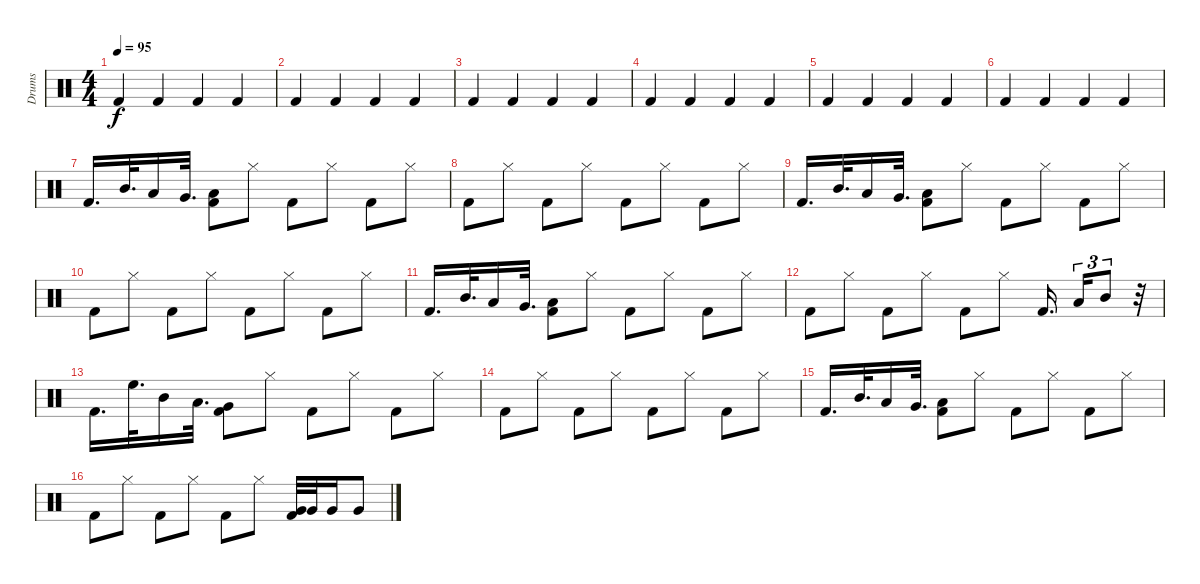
\track ("Drums" "Drums") {instrument percussion}
\staff {score}
\articulation defaults
\ts (4 4)
\tempo 95
\clef neutral
\ks c "Kick (hit) 2".4{dy f} "Kick (hit) 2".4 "Kick (hit) 2".4 "Kick (hit) 2".4
|
"Kick (hit) 2".4 "Kick (hit) 2".4 "Kick (hit) 2".4 "Kick (hit) 2".4 |
"Kick (hit) 2".4 "Kick (hit) 2".4 "Kick (hit) 2".4 "Kick (hit) 2".4 |
"Kick (hit) 2".4 "Kick (hit) 2".4 "Kick (hit) 2".4 "Kick (hit) 2".4 |
"Kick (hit) 2".4 "Kick (hit) 2".4 "Kick (hit) 2".4 "Kick (hit) 2".4 |
"Kick (hit) 2".4 "Kick (hit) 2".4 "Kick (hit) 2".4 "Kick (hit) 2".4 |
"Kick (hit) 2".16{d} "Mid Tom (hit)".32{d} "Low Tom (hit)".16 "Very Low Tom (hit)".32{d} ("Low Floor Tom (hit)" "Kick (hit) 2").8 "Hi-Hat (closed)".8 "Kick (hit) 2".8 "Hi-Hat (closed)".8 "Kick (hit) 2".8 "Hi-Hat (closed)".8 |
"Kick (hit) 2".8 "Hi-Hat (closed)".8 "Kick (hit) 2".8 "Hi-Hat (closed)".8 "Kick (hit) 2".8 "Hi-Hat (closed)".8 "Kick (hit) 2".8 "Hi-Hat (closed)".8 |
"Kick (hit) 2".16{d} "Mid Tom (hit)".32{d} "Low Tom (hit)".16 "Very Low Tom (hit)".32{d} ("Low Floor Tom (hit)" "Kick (hit) 2").8 "Hi-Hat (closed)".8 "Kick (hit) 2".8 "Hi-Hat (closed)".8 "Kick (hit) 2".8 "Hi-Hat (closed)".8 |
"Kick (hit) 2".8 "Hi-Hat (closed)".8 "Kick (hit) 2".8 "Hi-Hat (closed)".8 "Kick (hit) 2".8 "Hi-Hat (closed)".8 "Kick (hit) 2".8 "Hi-Hat (closed)".8 |
"Kick (hit) 2".16{d} "Mid Tom (hit)".32{d} "Low Tom (hit)".16 "Very Low Tom (hit)".32{d} ("Low Floor Tom (hit)" "Kick (hit) 2").8 "Hi-Hat (closed)".8 "Kick (hit) 2".8 "Hi-Hat (closed)".8 "Kick (hit) 2".8 "Hi-Hat (closed)".8 |
"Kick (hit) 2".8 "Hi-Hat (closed)".8 "Kick (hit) 2".8 "Hi-Hat (closed)".8 "Kick (hit) 2".8 "Hi-Hat (closed)".8 "Kick (hit) 2".16{d beam splitsecondary} "Low Tom (hit)".16{tu (3 2)} "Mid Tom (hit)".8{tu (3 2)} r.32 |
"Kick (hit) 2".16{d} "High Floor Tom (hit)".32{d} "Mid Tom (hit)".16 "Low Tom (hit)".32{d} ("Very Low Tom (hit)" "Kick (hit) 2").8 "Hi-Hat (closed)".8 "Kick (hit) 2".8 "Hi-Hat (closed)".8 "Kick (hit) 2".8 "Hi-Hat (closed)".8 |
"Kick (hit) 2".8 "Hi-Hat (closed)".8 "Kick (hit) 2".8 "Hi-Hat (closed)".8 "Kick (hit) 2".8 "Hi-Hat (closed)".8 "Kick (hit) 2".8 "Hi-Hat (closed)".8 |
"Kick (hit) 2".16{d} "Mid Tom (hit)".32{d} "Low Tom (hit)".16 "Very Low Tom (hit)".32{d} ("Low Floor Tom (hit)" "Kick (hit) 2").8 "Hi-Hat (closed)".8 "Kick (hit) 2".8 "Hi-Hat (closed)".8 "Kick (hit) 2".8 "Hi-Hat (closed)".8 |
"Kick (hit) 2".8 "Hi-Hat (closed)".8 "Kick (hit) 2".8 "Hi-Hat (closed)".8 "Kick (hit) 2".8 "Hi-Hat (closed)".8 ("Very Low Tom (hit)" "Kick (hit) 2").32 "Very Low Tom (hit)".32 "Very Low Tom (hit)".16 "Very Low Tom (hit)".8
